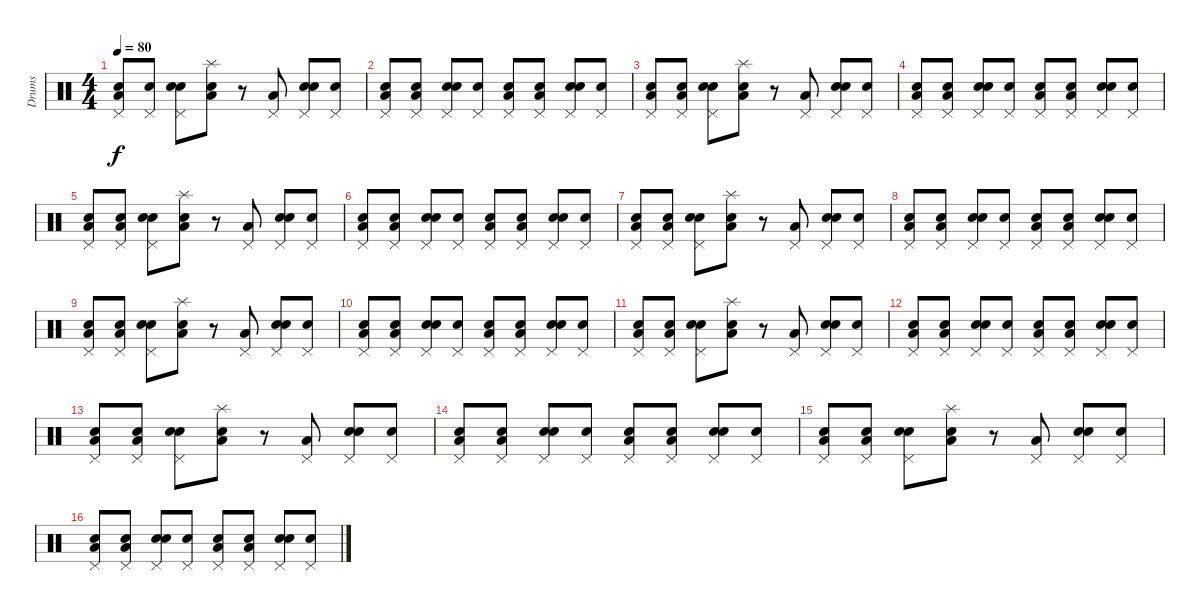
\track ("Drums" "Drums") {instrument percussion}
\staff {score}
\articulation defaults
\ts (4 4)
\tempo 80
\clef neutral
\ks c
("Snare (hit)" "Low Floor Tom (hit)" "Pedal Hi-Hat (hit)").8{dy f} ("Snare (hit)" "Pedal Hi-Hat (hit)").8 ("Snare (hit)" "Electric Snare (hit)" "Pedal Hi-Hat (hit)").8 ("Snare (hit)" "Low Floor Tom (hit)" "Splash (hit)").8 r.8 ("Low Floor Tom (hit)" "Pedal Hi-Hat (hit)").8 ("Snare (hit)" "Electric Snare (hit)" "Pedal Hi-Hat (hit)").8 ("Snare (hit)" "Pedal Hi-Hat (hit)").8 |
("Snare (hit)" "Low Floor Tom (hit)" "Pedal Hi-Hat (hit)").8 ("Snare (hit)" "Low Floor Tom (hit)" "Pedal Hi-Hat (hit)").8 ("Snare (hit)" "Electric Snare (hit)" "Pedal Hi-Hat (hit)").8 ("Snare (hit)" "Pedal Hi-Hat (hit)").8 ("Snare (hit)" "Low Floor Tom (hit)" "Pedal Hi-Hat (hit)").8 ("Snare (hit)" "Low Floor Tom (hit)" "Pedal Hi-Hat (hit)").8 ("Snare (hit)" "Electric Snare (hit)" "Pedal Hi-Hat (hit)").8 ("Snare (hit)" "Pedal Hi-Hat (hit)").8 |
("Snare (hit)" "Low Floor Tom (hit)" "Pedal Hi-Hat (hit)").8 ("Snare (hit)" "Low Floor Tom (hit)" "Pedal Hi-Hat (hit)").8 ("Snare (hit)" "Electric Snare (hit)" "Pedal Hi-Hat (hit)").8 ("Snare (hit)" "Low Floor Tom (hit)" "Splash (hit)").8 r.8 ("Low Floor Tom (hit)" "Pedal Hi-Hat (hit)").8 ("Snare (hit)" "Electric Snare (hit)" "Pedal Hi-Hat (hit)").8 ("Snare (hit)" "Pedal Hi-Hat (hit)").8 |
("Snare (hit)" "Low Floor Tom (hit)" "Pedal Hi-Hat (hit)").8 ("Snare (hit)" "Low Floor Tom (hit)" "Pedal Hi-Hat (hit)").8 ("Snare (hit)" "Electric Snare (hit)" "Pedal Hi-Hat (hit)").8 ("Snare (hit)" "Pedal Hi-Hat (hit)").8 ("Snare (hit)" "Low Floor Tom (hit)" "Pedal Hi-Hat (hit)").8 ("Snare (hit)" "Low Floor Tom (hit)" "Pedal Hi-Hat (hit)").8 ("Snare (hit)" "Electric Snare (hit)" "Pedal Hi-Hat (hit)").8 ("Snare (hit)" "Pedal Hi-Hat (hit)").8 |
("Snare (hit)" "Low Floor Tom (hit)" "Pedal Hi-Hat (hit)").8 ("Snare (hit)" "Low Floor Tom (hit)" "Pedal Hi-Hat (hit)").8 ("Snare (hit)" "Electric Snare (hit)" "Pedal Hi-Hat (hit)").8 ("Snare (hit)" "Low Floor Tom (hit)" "Splash (hit)").8 r.8 ("Low Floor Tom (hit)" "Pedal Hi-Hat (hit)").8 ("Snare (hit)" "Electric Snare (hit)" "Pedal Hi-Hat (hit)").8 ("Snare (hit)" "Pedal Hi-Hat (hit)").8 |
("Snare (hit)" "Low Floor Tom (hit)" "Pedal Hi-Hat (hit)").8 ("Snare (hit)" "Low Floor Tom (hit)" "Pedal Hi-Hat (hit)").8 ("Snare (hit)" "Electric Snare (hit)" "Pedal Hi-Hat (hit)").8 ("Snare (hit)" "Pedal Hi-Hat (hit)").8 ("Snare (hit)" "Low Floor Tom (hit)" "Pedal Hi-Hat (hit)").8 ("Snare (hit)" "Low Floor Tom (hit)" "Pedal Hi-Hat (hit)").8 ("Snare (hit)" "Electric Snare (hit)" "Pedal Hi-Hat (hit)").8 ("Snare (hit)" "Pedal Hi-Hat (hit)").8 |
("Snare (hit)" "Low Floor Tom (hit)" "Pedal Hi-Hat (hit)").8 ("Snare (hit)" "Low Floor Tom (hit)" "Pedal Hi-Hat (hit)").8 ("Snare (hit)" "Electric Snare (hit)" "Pedal Hi-Hat (hit)").8 ("Snare (hit)" "Low Floor Tom (hit)" "Splash (hit)").8 r.8 ("Low Floor Tom (hit)" "Pedal Hi-Hat (hit)").8 ("Snare (hit)" "Electric Snare (hit)" "Pedal Hi-Hat (hit)").8 ("Snare (hit)" "Pedal Hi-Hat (hit)").8 |
("Snare (hit)" "Low Floor Tom (hit)" "Pedal Hi-Hat (hit)").8 ("Snare (hit)" "Low Floor Tom (hit)" "Pedal Hi-Hat (hit)").8 ("Snare (hit)" "Electric Snare (hit)" "Pedal Hi-Hat (hit)").8 ("Snare (hit)" "Pedal Hi-Hat (hit)").8 ("Snare (hit)" "Low Floor Tom (hit)" "Pedal Hi-Hat (hit)").8 ("Snare (hit)" "Low Floor Tom (hit)" "Pedal Hi-Hat (hit)").8 ("Snare (hit)" "Electric Snare (hit)" "Pedal Hi-Hat (hit)").8 ("Snare (hit)" "Pedal Hi-Hat (hit)").8 |
("Snare (hit)" "Low Floor Tom (hit)" "Pedal Hi-Hat (hit)").8 ("Snare (hit)" "Low Floor Tom (hit)" "Pedal Hi-Hat (hit)").8 ("Snare (hit)" "Electric Snare (hit)" "Pedal Hi-Hat (hit)").8 ("Snare (hit)" "Low Floor Tom (hit)" "Splash (hit)").8 r.8 ("Low Floor Tom (hit)" "Pedal Hi-Hat (hit)").8 ("Snare (hit)" "Electric Snare (hit)" "Pedal Hi-Hat (hit)").8 ("Snare (hit)" "Pedal Hi-Hat (hit)").8 |
("Snare (hit)" "Low Floor Tom (hit)" "Pedal Hi-Hat (hit)").8 ("Snare (hit)" "Low Floor Tom (hit)" "Pedal Hi-Hat (hit)").8 ("Snare (hit)" "Electric Snare (hit)" "Pedal Hi-Hat (hit)").8 ("Snare (hit)" "Pedal Hi-Hat (hit)").8 ("Snare (hit)" "Low Floor Tom (hit)" "Pedal Hi-Hat (hit)").8 ("Snare (hit)" "Low Floor Tom (hit)" "Pedal Hi-Hat (hit)").8 ("Snare (hit)" "Electric Snare (hit)" "Pedal Hi-Hat (hit)").8 ("Snare (hit)" "Pedal Hi-Hat (hit)").8 |
("Snare (hit)" "Low Floor Tom (hit)" "Pedal Hi-Hat (hit)").8 ("Snare (hit)" "Low Floor Tom (hit)" "Pedal Hi-Hat (hit)").8 ("Snare (hit)" "Electric Snare (hit)" "Pedal Hi-Hat (hit)").8 ("Snare (hit)" "Low Floor Tom (hit)" "Splash (hit)").8 r.8 ("Low Floor Tom (hit)" "Pedal Hi-Hat (hit)").8 ("Snare (hit)" "Electric Snare (hit)" "Pedal Hi-Hat (hit)").8 ("Snare (hit)" "Pedal Hi-Hat (hit)").8 |
("Snare (hit)" "Low Floor Tom (hit)" "Pedal Hi-Hat (hit)").8 ("Snare (hit)" "Low Floor Tom (hit)" "Pedal Hi-Hat (hit)").8 ("Snare (hit)" "Electric Snare (hit)" "Pedal Hi-Hat (hit)").8 ("Snare (hit)" "Pedal Hi-Hat (hit)").8 ("Snare (hit)" "Low Floor Tom (hit)" "Pedal Hi-Hat (hit)").8 ("Snare (hit)" "Low Floor Tom (hit)" "Pedal Hi-Hat (hit)").8 ("Snare (hit)" "Electric Snare (hit)" "Pedal Hi-Hat (hit)").8 ("Snare (hit)" "Pedal Hi-Hat (hit)").8 |
("Snare (hit)" "Low Floor Tom (hit)" "Pedal Hi-Hat (hit)").8 ("Snare (hit)" "Low Floor Tom (hit)" "Pedal Hi-Hat (hit)").8 ("Snare (hit)" "Electric Snare (hit)" "Pedal Hi-Hat (hit)").8 ("Snare (hit)" "Low Floor Tom (hit)" "Splash (hit)").8 r.8 ("Low Floor Tom (hit)" "Pedal Hi-Hat (hit)").8 ("Snare (hit)" "Electric Snare (hit)" "Pedal Hi-Hat (hit)").8 ("Snare (hit)" "Pedal Hi-Hat (hit)").8 |
("Snare (hit)" "Low Floor Tom (hit)" "Pedal Hi-Hat (hit)").8 ("Snare (hit)" "Low Floor Tom (hit)" "Pedal Hi-Hat (hit)").8 ("Snare (hit)" "Electric Snare (hit)" "Pedal Hi-Hat (hit)").8 ("Snare (hit)" "Pedal Hi-Hat (hit)").8 ("Snare (hit)" "Low Floor Tom (hit)" "Pedal Hi-Hat (hit)").8 ("Snare (hit)" "Low Floor Tom (hit)" "Pedal Hi-Hat (hit)").8 ("Snare (hit)" "Electric Snare (hit)" "Pedal Hi-Hat (hit)").8 ("Snare (hit)" "Pedal Hi-Hat (hit)").8 |
("Snare (hit)" "Low Floor Tom (hit)" "Pedal Hi-Hat (hit)").8 ("Snare (hit)" "Low Floor Tom (hit)" "Pedal Hi-Hat (hit)").8 ("Snare (hit)" "Electric Snare (hit)" "Pedal Hi-Hat (hit)").8 ("Snare (hit)" "Low Floor Tom (hit)" "Splash (hit)").8 r.8 ("Low Floor Tom (hit)" "Pedal Hi-Hat (hit)").8 ("Snare (hit)" "Electric Snare (hit)" "Pedal Hi-Hat (hit)").8 ("Snare (hit)" "Pedal Hi-Hat (hit)").8 |
("Snare (hit)" "Low Floor Tom (hit)" "Pedal Hi-Hat (hit)").8 ("Snare (hit)" "Low Floor Tom (hit)" "Pedal Hi-Hat (hit)").8 ("Snare (hit)" "Electric Snare (hit)" "Pedal Hi-Hat (hit)").8 ("Snare (hit)" "Pedal Hi-Hat (hit)").8 ("Snare (hit)" "Low Floor Tom (hit)" "Pedal Hi-Hat (hit)").8 ("Snare (hit)" "Low Floor Tom (hit)" "Pedal Hi-Hat (hit)").8 ("Snare (hit)" "Electric Snare (hit)" "Pedal Hi-Hat (hit)").8 ("Snare (hit)" "Pedal Hi-Hat (hit)").8
